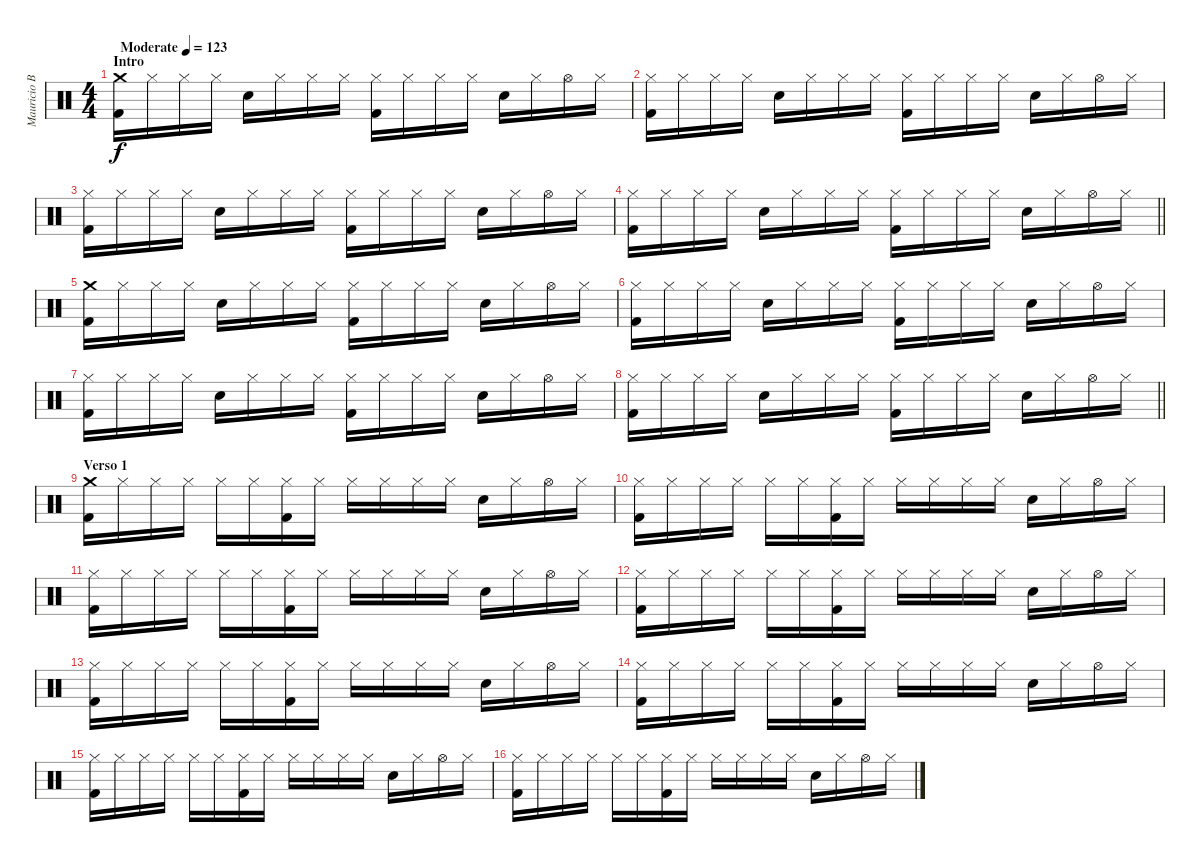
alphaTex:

\track ("Mauricio Basualto" "Mauricio B") {instrument percussion}
\staff {score}
\articulation defaults
\ts (4 4)
\section ("" "Intro")
\tempo (123 "Moderate")
\clef neutral
\ks c
("Crash medium (hit)" "Kick (hit) 2").16{dy f} "Hi-Hat (closed)".16 "Hi-Hat (closed)".16 "Hi-Hat (closed)".16 "Electric Snare (hit)".16 "Hi-Hat (closed)".16 "Hi-Hat (closed)".16 "Hi-Hat (closed)".16 ("Hi-Hat (closed)" "Kick (hit) 2").16 "Hi-Hat (closed)".16 "Hi-Hat (closed)".16 "Hi-Hat (closed)".16 "Electric Snare (hit)".16 "Hi-Hat (closed)".16 "Hi-Hat (open)".16 "Hi-Hat (closed)".16 |
("Hi-Hat (closed)" "Kick (hit) 2").16 "Hi-Hat (closed)".16 "Hi-Hat (closed)".16 "Hi-Hat (closed)".16 "Electric Snare (hit)".16 "Hi-Hat (closed)".16 "Hi-Hat (closed)".16 "Hi-Hat (closed)".16 ("Hi-Hat (closed)" "Kick (hit) 2").16 "Hi-Hat (closed)".16 "Hi-Hat (closed)".16 "Hi-Hat (closed)".16 "Electric Snare (hit)".16 "Hi-Hat (closed)".16 "Hi-Hat (open)".16 "Hi-Hat (closed)".16 |
("Hi-Hat (closed)" "Kick (hit) 2").16 "Hi-Hat (closed)".16 "Hi-Hat (closed)".16 "Hi-Hat (closed)".16 "Electric Snare (hit)".16 "Hi-Hat (closed)".16 "Hi-Hat (closed)".16 "Hi-Hat (closed)".16 ("Hi-Hat (closed)" "Kick (hit) 2").16 "Hi-Hat (closed)".16 "Hi-Hat (closed)".16 "Hi-Hat (closed)".16 "Electric Snare (hit)".16 "Hi-Hat (closed)".16 "Hi-Hat (open)".16 "Hi-Hat (closed)".16 |
\barLineRight lightlight
("Hi-Hat (closed)" "Kick (hit) 2").16 "Hi-Hat (closed)".16 "Hi-Hat (closed)".16 "Hi-Hat (closed)".16 "Electric Snare (hit)".16 "Hi-Hat (closed)".16 "Hi-Hat (closed)".16 "Hi-Hat (closed)".16 ("Hi-Hat (closed)" "Kick (hit) 2").16 "Hi-Hat (closed)".16 "Hi-Hat (closed)".16 "Hi-Hat (closed)".16 "Electric Snare (hit)".16 "Hi-Hat (closed)".16 "Hi-Hat (open)".16 "Hi-Hat (closed)".16 |
("Crash medium (hit)" "Kick (hit) 2").16 "Hi-Hat (closed)".16 "Hi-Hat (closed)".16 "Hi-Hat (closed)".16 "Electric Snare (hit)".16 "Hi-Hat (closed)".16 "Hi-Hat (closed)".16 "Hi-Hat (closed)".16 ("Hi-Hat (closed)" "Kick (hit) 2").16 "Hi-Hat (closed)".16 "Hi-Hat (closed)".16 "Hi-Hat (closed)".16 "Electric Snare (hit)".16 "Hi-Hat (closed)".16 "Hi-Hat (open)".16 "Hi-Hat (closed)".16 |
("Hi-Hat (closed)" "Kick (hit) 2").16 "Hi-Hat (closed)".16 "Hi-Hat (closed)".16 "Hi-Hat (closed)".16 "Electric Snare (hit)".16 "Hi-Hat (closed)".16 "Hi-Hat (closed)".16 "Hi-Hat (closed)".16 ("Hi-Hat (closed)" "Kick (hit) 2").16 "Hi-Hat (closed)".16 "Hi-Hat (closed)".16 "Hi-Hat (closed)".16 "Electric Snare (hit)".16 "Hi-Hat (closed)".16 "Hi-Hat (open)".16 "Hi-Hat (closed)".16 |
("Hi-Hat (closed)" "Kick (hit) 2").16 "Hi-Hat (closed)".16 "Hi-Hat (closed)".16 "Hi-Hat (closed)".16 "Electric Snare (hit)".16 "Hi-Hat (closed)".16 "Hi-Hat (closed)".16 "Hi-Hat (closed)".16 ("Hi-Hat (closed)" "Kick (hit) 2").16 "Hi-Hat (closed)".16 "Hi-Hat (closed)".16 "Hi-Hat (closed)".16 "Electric Snare (hit)".16 "Hi-Hat (closed)".16 "Hi-Hat (open)".16 "Hi-Hat (closed)".16 |
\barLineRight lightlight
("Hi-Hat (closed)" "Kick (hit) 2").16 "Hi-Hat (closed)".16 "Hi-Hat (closed)".16 "Hi-Hat (closed)".16 "Electric Snare (hit)".16 "Hi-Hat (closed)".16 "Hi-Hat (closed)".16 "Hi-Hat (closed)".16 ("Hi-Hat (closed)" "Kick (hit) 2").16 "Hi-Hat (closed)".16 "Hi-Hat (closed)".16 "Hi-Hat (closed)".16 "Electric Snare (hit)".16 "Hi-Hat (closed)".16 "Hi-Hat (open)".16 "Hi-Hat (closed)".16 |
\section ("" "Verso 1")
("Crash medium (hit)" "Kick (hit) 2").16 "Hi-Hat (closed)".16 "Hi-Hat (closed)".16 "Hi-Hat (closed)".16 "Hi-Hat (closed)".16 "Hi-Hat (closed)".16 ("Hi-Hat (closed)" "Kick (hit) 2").16 "Hi-Hat (closed)".16 "Hi-Hat (closed)".16 "Hi-Hat (closed)".16 "Hi-Hat (closed)".16 "Hi-Hat (closed)".16 "Electric Snare (hit)".16 "Hi-Hat (closed)".16 "Hi-Hat (open)".16 "Hi-Hat (closed)".16 |
("Hi-Hat (closed)" "Kick (hit) 2").16 "Hi-Hat (closed)".16 "Hi-Hat (closed)".16 "Hi-Hat (closed)".16 "Hi-Hat (closed)".16 "Hi-Hat (closed)".16 ("Hi-Hat (closed)" "Kick (hit) 2").16 "Hi-Hat (closed)".16 "Hi-Hat (closed)".16 "Hi-Hat (closed)".16 "Hi-Hat (closed)".16 "Hi-Hat (closed)".16 "Electric Snare (hit)".16 "Hi-Hat (closed)".16 "Hi-Hat (open)".16 "Hi-Hat (closed)".16 |
("Hi-Hat (closed)" "Kick (hit) 2").16 "Hi-Hat (closed)".16 "Hi-Hat (closed)".16 "Hi-Hat (closed)".16 "Hi-Hat (closed)".16 "Hi-Hat (closed)".16 ("Hi-Hat (closed)" "Kick (hit) 2").16 "Hi-Hat (closed)".16 "Hi-Hat (closed)".16 "Hi-Hat (closed)".16 "Hi-Hat (closed)".16 "Hi-Hat (closed)".16 "Electric Snare (hit)".16 "Hi-Hat (closed)".16 "Hi-Hat (open)".16 "Hi-Hat (closed)".16 |
("Hi-Hat (closed)" "Kick (hit) 2").16 "Hi-Hat (closed)".16 "Hi-Hat (closed)".16 "Hi-Hat (closed)".16 "Hi-Hat (closed)".16 "Hi-Hat (closed)".16 ("Hi-Hat (closed)" "Kick (hit) 2").16 "Hi-Hat (closed)".16 "Hi-Hat (closed)".16 "Hi-Hat (closed)".16 "Hi-Hat (closed)".16 "Hi-Hat (closed)".16 "Electric Snare (hit)".16 "Hi-Hat (closed)".16 "Hi-Hat (open)".16 "Hi-Hat (closed)".16 |
("Hi-Hat (closed)" "Kick (hit) 2").16 "Hi-Hat (closed)".16 "Hi-Hat (closed)".16 "Hi-Hat (closed)".16 "Hi-Hat (closed)".16 "Hi-Hat (closed)".16 ("Hi-Hat (closed)" "Kick (hit) 2").16 "Hi-Hat (closed)".16 "Hi-Hat (closed)".16 "Hi-Hat (closed)".16 "Hi-Hat (closed)".16 "Hi-Hat (closed)".16 "Electric Snare (hit)".16 "Hi-Hat (closed)".16 "Hi-Hat (open)".16 "Hi-Hat (closed)".16 |
("Hi-Hat (closed)" "Kick (hit) 2").16 "Hi-Hat (closed)".16 "Hi-Hat (closed)".16 "Hi-Hat (closed)".16 "Hi-Hat (closed)".16 "Hi-Hat (closed)".16 ("Hi-Hat (closed)" "Kick (hit) 2").16 "Hi-Hat (closed)".16 "Hi-Hat (closed)".16 "Hi-Hat (closed)".16 "Hi-Hat (closed)".16 "Hi-Hat (closed)".16 "Electric Snare (hit)".16 "Hi-Hat (closed)".16 "Hi-Hat (open)".16 "Hi-Hat (closed)".16 |
("Hi-Hat (closed)" "Kick (hit) 2").16 "Hi-Hat (closed)".16 "Hi-Hat (closed)".16 "Hi-Hat (closed)".16 "Hi-Hat (closed)".16 "Hi-Hat (closed)".16 ("Hi-Hat (closed)" "Kick (hit) 2").16 "Hi-Hat (closed)".16 "Hi-Hat (closed)".16 "Hi-Hat (closed)".16 "Hi-Hat (closed)".16 "Hi-Hat (closed)".16 "Electric Snare (hit)".16 "Hi-Hat (closed)".16 "Hi-Hat (open)".16 "Hi-Hat (closed)".16 |
("Hi-Hat (closed)" "Kick (hit) 2").16 "Hi-Hat (closed)".16 "Hi-Hat (closed)".16 "Hi-Hat (closed)".16 "Hi-Hat (closed)".16 "Hi-Hat (closed)".16 ("Hi-Hat (closed)" "Kick (hit) 2").16 "Hi-Hat (closed)".16 "Hi-Hat (closed)".16 "Hi-Hat (closed)".16 "Hi-Hat (closed)".16 "Hi-Hat (closed)".16 "Electric Snare (hit)".16 "Hi-Hat (closed)".16 "Hi-Hat (open)".16 "Hi-Hat (closed)".16
